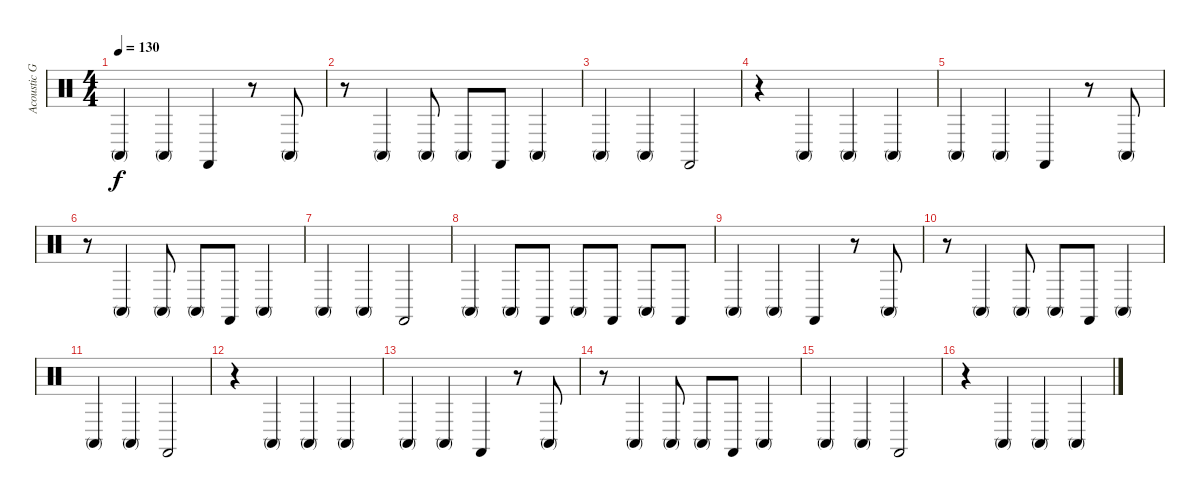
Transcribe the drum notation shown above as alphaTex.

\track ("Acoustic Guitar used for rythm" "Acoustic G") {instrument percussion}
\staff {score}
\articulation defaults
\ts (4 4)
\tempo 130
\clef neutral
\ks c "Conga high (mute)".4{dy f} "Conga high (mute)".4 "Castanets (hit)".4
r.8 "Conga high (mute)".8 |
r.8 "Conga high (mute)".4 "Conga high (mute)".8 "Conga high (mute)".8 "Castanets (hit)".8 "Conga high (mute)".4 |
"Conga high (mute)".4 "Conga high (mute)".4 "Castanets (hit)".2 |
r.4 "Conga high (mute)".4 "Conga high (mute)".4 "Conga high (mute)".4 |
"Conga high (mute)".4 "Conga high (mute)".4 "Castanets (hit)".4 r.8 "Conga high (mute)".8 |
r.8 "Conga high (mute)".4 "Conga high (mute)".8 "Conga high (mute)".8 "Castanets (hit)".8 "Conga high (mute)".4 |
"Conga high (mute)".4 "Conga high (mute)".4 "Castanets (hit)".2 |
"Conga high (mute)".4 "Conga high (mute)".8 "Castanets (hit)".8 "Conga high (mute)".8 "Castanets (hit)".8 "Conga high (mute)".8 "Castanets (hit)".8 |
"Conga high (mute)".4 "Conga high (mute)".4 "Castanets (hit)".4 r.8 "Conga high (mute)".8 |
r.8 "Conga high (mute)".4 "Conga high (mute)".8 "Conga high (mute)".8 "Castanets (hit)".8 "Conga high (mute)".4 |
"Conga high (mute)".4 "Conga high (mute)".4 "Castanets (hit)".2 |
r.4 "Conga high (mute)".4 "Conga high (mute)".4 "Conga high (mute)".4 |
"Conga high (mute)".4 "Conga high (mute)".4 "Castanets (hit)".4 r.8 "Conga high (mute)".8 |
r.8 "Conga high (mute)".4 "Conga high (mute)".8 "Conga high (mute)".8 "Castanets (hit)".8 "Conga high (mute)".4 |
"Conga high (mute)".4 "Conga high (mute)".4 "Castanets (hit)".2 |
r.4 "Conga high (mute)".4 "Conga high (mute)".4 "Conga high (mute)".4
